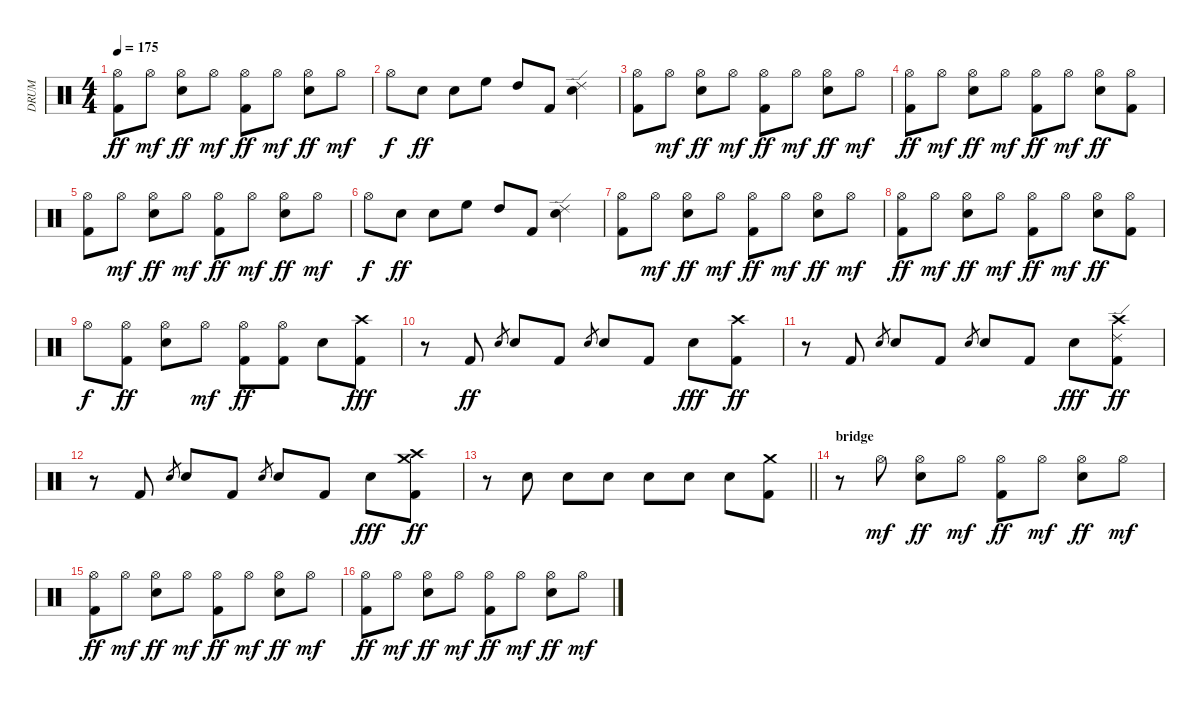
\track ("DRUM" "DRUM") {instrument percussion}
\staff {score}
\articulation defaults
\ts (4 4)
\tempo 175
\clef neutral
\ks c
("Hi-Hat (open)" "Kick (hit) 2").8{dy ff} "Hi-Hat (open)".8{dy mf} ("Hi-Hat (open)" "Snare (hit) 2").8{dy ff} "Hi-Hat (open)".8{dy mf} ("Hi-Hat (open)" "Kick (hit) 2").8{dy ff} "Hi-Hat (open)".8{dy mf} ("Hi-Hat (open)" "Snare (hit) 2").8{dy ff} "Hi-Hat (open)".8{dy mf} |
"Hi-Hat (open)".8{dy f} "Electric Snare (hit)".8{dy ff} "Snare (hit) 2".8 "High Floor Tom (hit)".8 "High Tom (hit)".8 "Kick (hit) 2".8 ("Ride (edge) 2" "Snare (hit) 2").4 |
("Hi-Hat (open)" "Kick (hit) 2").8 "Hi-Hat (open)".8{dy mf} ("Hi-Hat (open)" "Snare (hit) 2").8{dy ff} "Hi-Hat (open)".8{dy mf} ("Hi-Hat (open)" "Kick (hit) 2").8{dy ff} "Hi-Hat (open)".8{dy mf} ("Hi-Hat (open)" "Snare (hit) 2").8{dy ff} "Hi-Hat (open)".8{dy mf} |
("Hi-Hat (open)" "Kick (hit) 2").8{dy ff} "Hi-Hat (open)".8{dy mf} ("Hi-Hat (open)" "Snare (hit) 2").8{dy ff} "Hi-Hat (open)".8{dy mf} ("Hi-Hat (open)" "Kick (hit) 2").8{dy ff} "Hi-Hat (open)".8{dy mf} ("Hi-Hat (open)" "Snare (hit) 2").8{dy ff} ("Hi-Hat (open)" "Kick (hit) 2").8 |
("Hi-Hat (open)" "Kick (hit) 2").8 "Hi-Hat (open)".8{dy mf} ("Hi-Hat (open)" "Snare (hit) 2").8{dy ff} "Hi-Hat (open)".8{dy mf} ("Hi-Hat (open)" "Kick (hit) 2").8{dy ff} "Hi-Hat (open)".8{dy mf} ("Hi-Hat (open)" "Snare (hit) 2").8{dy ff} "Hi-Hat (open)".8{dy mf} |
"Hi-Hat (open)".8{dy f} "Electric Snare (hit)".8{dy ff} "Snare (hit) 2".8 "High Floor Tom (hit)".8 "High Tom (hit)".8 "Kick (hit) 2".8 ("Ride (edge) 2" "Snare (hit) 2").4 |
("Hi-Hat (open)" "Kick (hit) 2").8 "Hi-Hat (open)".8{dy mf} ("Hi-Hat (open)" "Snare (hit) 2").8{dy ff} "Hi-Hat (open)".8{dy mf} ("Hi-Hat (open)" "Kick (hit) 2").8{dy ff} "Hi-Hat (open)".8{dy mf} ("Hi-Hat (open)" "Snare (hit) 2").8{dy ff} "Hi-Hat (open)".8{dy mf} |
("Hi-Hat (open)" "Kick (hit) 2").8{dy ff} "Hi-Hat (open)".8{dy mf} ("Hi-Hat (open)" "Snare (hit) 2").8{dy ff} "Hi-Hat (open)".8{dy mf} ("Hi-Hat (open)" "Kick (hit) 2").8{dy ff} "Hi-Hat (open)".8{dy mf} ("Hi-Hat (open)" "Snare (hit) 2").8{dy ff} ("Hi-Hat (open)" "Kick (hit) 2").8 |
"Hi-Hat (open)".8{dy f} ("Hi-Hat (open)" "Kick (hit) 2").8{dy ff} ("Hi-Hat (open)" "Snare (hit) 2").8 "Hi-Hat (open)".8{dy mf} ("Hi-Hat (open)" "Kick (hit) 2").8{dy ff} ("Hi-Hat (open)" "Kick (hit) 2").8 "Snare (hit) 2".8 ("Crash high (hit)" "Kick (hit) 2").8{dy fff} |
r.8 "Kick (hit) 2".8{dy ff} "Electric Snare (hit)".8{gr} "Snare (hit) 2".8 "Kick (hit) 2".8 "Electric Snare (hit)".8{gr} "Snare (hit) 2".8 "Kick (hit) 2".8 "Snare (hit) 2".8{dy fff} ("Crash high (hit)" "Kick (hit) 2").8{dy ff} |
r.8 "Kick (hit) 2".8 "Electric Snare (hit)".8{gr} "Snare (hit) 2".8 "Kick (hit) 2".8 "Electric Snare (hit)".8{gr} "Snare (hit) 2".8 "Kick (hit) 2".8 "Snare (hit) 2".8{dy fff} ("Ride (edge) 2" "Crash high (hit)" "Kick (hit) 2").8{dy ff} |
r.8 "Kick (hit) 2".8 "Electric Snare (hit)".8{gr} "Snare (hit) 2".8 "Kick (hit) 2".8 "Electric Snare (hit)".8{gr} "Snare (hit) 2".8 "Kick (hit) 2".8 "Snare (hit) 2".8{dy fff} ("Crash medium (hit)" "Crash high (hit)" "Kick (hit) 2").8{dy ff} |
\barLineRight lightlight
r.8 "Electric Snare (hit)".8 "Snare (hit) 2".8 "Electric Snare (hit)".8 "Snare (hit) 2".8 "Electric Snare (hit)".8 "Snare (hit) 2".8 ("Crash medium (hit)" "Kick (hit) 2").8 |
\section ("" "bridge")
r.8 "Hi-Hat (open)".8{dy mf} ("Hi-Hat (open)" "Snare (hit) 2").8{dy ff} "Hi-Hat (open)".8{dy mf} ("Hi-Hat (open)" "Kick (hit) 2").8{dy ff} "Hi-Hat (open)".8{dy mf} ("Hi-Hat (open)" "Snare (hit) 2").8{dy ff} "Hi-Hat (open)".8{dy mf} |
("Hi-Hat (open)" "Kick (hit) 2").8{dy ff} "Hi-Hat (open)".8{dy mf} ("Hi-Hat (open)" "Snare (hit) 2").8{dy ff} "Hi-Hat (open)".8{dy mf} ("Hi-Hat (open)" "Kick (hit) 2").8{dy ff} "Hi-Hat (open)".8{dy mf} ("Hi-Hat (open)" "Snare (hit) 2").8{dy ff} "Hi-Hat (open)".8{dy mf} |
("Hi-Hat (open)" "Kick (hit) 2").8{dy ff} "Hi-Hat (open)".8{dy mf} ("Hi-Hat (open)" "Snare (hit) 2").8{dy ff} "Hi-Hat (open)".8{dy mf} ("Hi-Hat (open)" "Kick (hit) 2").8{dy ff} "Hi-Hat (open)".8{dy mf} ("Hi-Hat (open)" "Snare (hit) 2").8{dy ff} "Hi-Hat (open)".8{dy mf}
